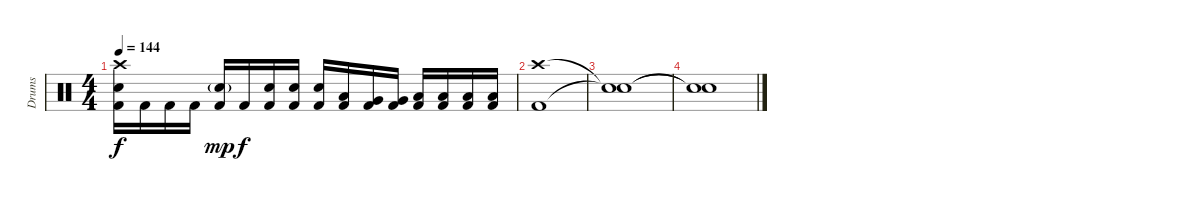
\track ("Drums" "Drums") {instrument percussion}
\staff {score}
\articulation defaults
\ts (4 4)
\tempo 144
\clef neutral
\ks c
("Crash high (hit)" "Snare (hit) 2" "Kick (hit) 2").16{dy f} "Kick (hit) 2".16 "Kick (hit) 2".16 "Kick (hit) 2".16 ("Snare (hit) 2"{g} "Kick (hit) 2").16{dy mp} "Kick (hit) 2".16{dy f} ("Snare (hit) 2" "Kick (hit) 2").16 ("Snare (hit) 2" "Kick (hit) 2").16 ("Snare (hit) 2" "Kick (hit) 2").16 ("Low Tom (hit)" "Kick (hit) 2").16 ("Very Low Tom (hit)" "Kick (hit) 2").16 ("Very Low Tom (hit)" "Kick (hit) 2").16 ("Low Floor Tom (hit)" "Kick (hit) 2").16 ("Low Floor Tom (hit)" "Kick (hit) 2").16 ("Low Floor Tom (hit)" "Kick (hit) 2").16 ("Low Floor Tom (hit)" "Kick (hit) 2").16 |
("Crash high (hit)" "Kick (hit) 2").1{volume 0} |
("Snare (hit)"{t} "Snare (hit)"{t}).1 |
("Snare (hit)"{t} "Snare (hit)"{t}).1
